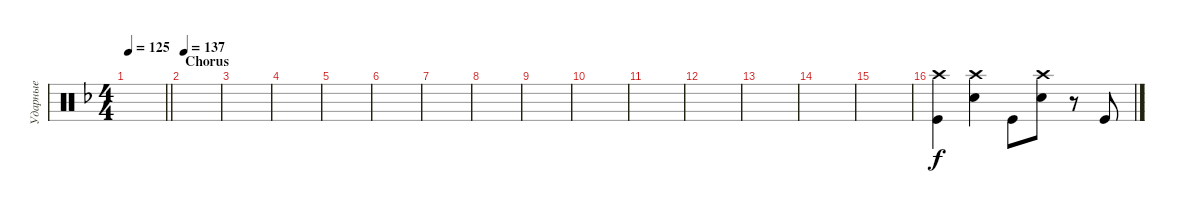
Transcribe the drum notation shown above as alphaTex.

\track ("Ударные" "Ударные") {instrument percussion}
\staff {score}
\articulation defaults
\ts (4 4)
\tempo 125
\clef neutral
\barLineRight lightlight
\ks dminor
|
\section ("" "Chorus")
\tempo 137
|
|
|
|
|
|
|
|
|
|
|
|
|
|
("Kick (hit)" "Crash high (hit)").4 ("Snare (hit) 2" "Crash high (hit)").4 "Kick (hit)".8 ("Snare (hit) 2" "Crash high (hit)").8 r.8 "Kick (hit)".8
